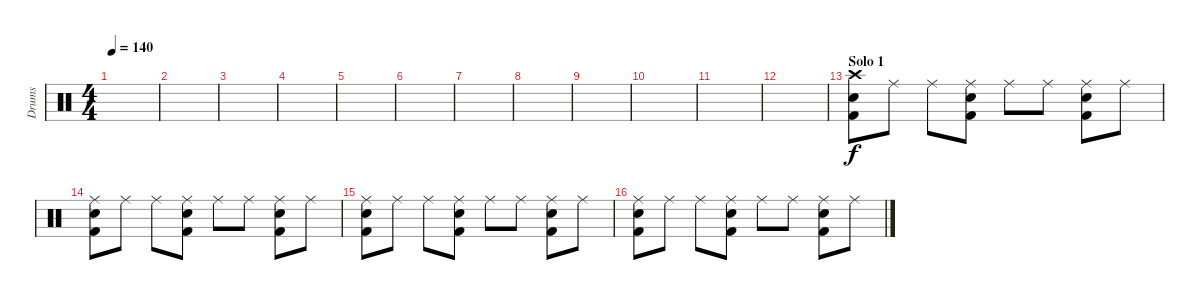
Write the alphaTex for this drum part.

\track ("Drums" "Drums") {instrument percussion}
\staff {score}
\articulation defaults
\ts (4 4)
\tempo 140
\clef neutral
\ks c
|
|
|
|
|
|
|
|
|
|
|
|
\section ("" "Solo 1")
("Crash high (hit)" "Snare (hit) 2" "Kick (hit) 2").8 "Ride (middle)".8 "Ride (middle)".8 ("Ride (middle)" "Snare (hit) 2" "Kick (hit) 2").8 "Ride (middle)".8 "Ride (middle)".8 ("Ride (middle)" "Snare (hit) 2" "Kick (hit) 2").8 "Ride (middle)".8 |
("Ride (middle)" "Snare (hit) 2" "Kick (hit) 2").8 "Ride (middle)".8 "Ride (middle)".8 ("Ride (middle)" "Snare (hit) 2" "Kick (hit) 2").8 "Ride (middle)".8 "Ride (middle)".8 ("Ride (middle)" "Snare (hit) 2" "Kick (hit) 2").8 "Ride (middle)".8 |
("Ride (middle)" "Snare (hit) 2" "Kick (hit) 2").8 "Ride (middle)".8 "Ride (middle)".8 ("Ride (middle)" "Snare (hit) 2" "Kick (hit) 2").8 "Ride (middle)".8 "Ride (middle)".8 ("Ride (middle)" "Snare (hit) 2" "Kick (hit) 2").8 "Ride (middle)".8 |
("Ride (middle)" "Snare (hit) 2" "Kick (hit) 2").8 "Ride (middle)".8 "Ride (middle)".8 ("Ride (middle)" "Snare (hit) 2" "Kick (hit) 2").8 "Ride (middle)".8 "Ride (middle)".8 ("Ride (middle)" "Snare (hit) 2" "Kick (hit) 2").8 "Ride (middle)".8
